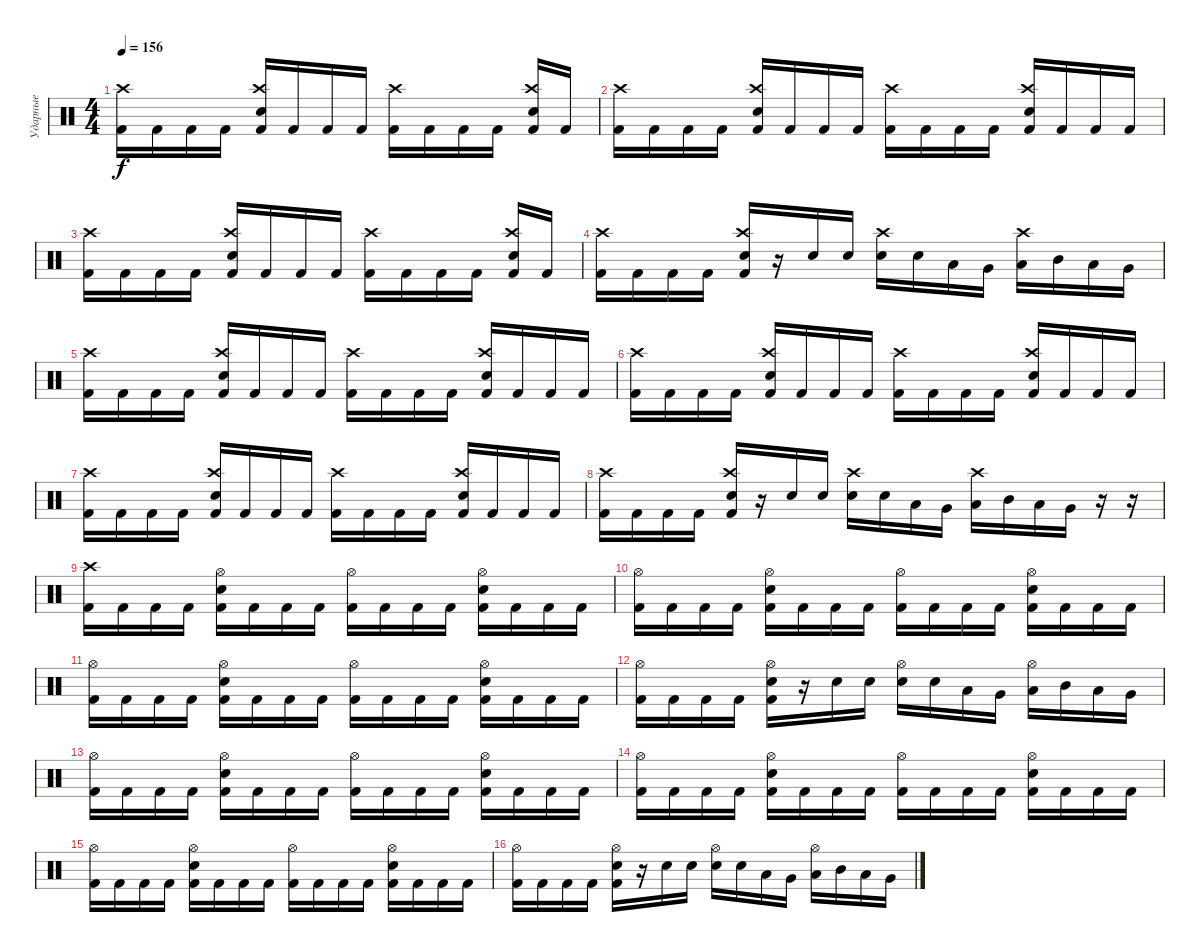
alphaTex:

\track ("Ударные" "Ударные") {instrument percussion}
\staff {score}
\articulation defaults
\ts (4 4)
\tempo 156
\clef neutral
\ks c
("Kick (hit) 2" "Crash high (hit)").16{dy f} "Kick (hit) 2".16 "Kick (hit) 2".16 "Kick (hit) 2".16 ("Kick (hit) 2" "Electric Snare (hit)" "Crash high (hit)").16 "Kick (hit) 2".16 "Kick (hit) 2".16 "Kick (hit) 2".16 ("Kick (hit) 2" "Crash high (hit)").16 "Kick (hit) 2".16 "Kick (hit) 2".16 "Kick (hit) 2".16 ("Kick (hit) 2" "Electric Snare (hit)" "Crash high (hit)").16 "Kick (hit) 2".16 |
("Kick (hit) 2" "Crash high (hit)").16 "Kick (hit) 2".16 "Kick (hit) 2".16 "Kick (hit) 2".16 ("Kick (hit) 2" "Electric Snare (hit)" "Crash high (hit)").16 "Kick (hit) 2".16 "Kick (hit) 2".16 "Kick (hit) 2".16 ("Kick (hit) 2" "Crash high (hit)").16 "Kick (hit) 2".16 "Kick (hit) 2".16 "Kick (hit) 2".16 ("Kick (hit) 2" "Electric Snare (hit)" "Crash high (hit)").16 "Kick (hit) 2".16 "Kick (hit) 2".16 "Kick (hit) 2".16 |
("Kick (hit) 2" "Crash high (hit)").16 "Kick (hit) 2".16 "Kick (hit) 2".16 "Kick (hit) 2".16 ("Kick (hit) 2" "Electric Snare (hit)" "Crash high (hit)").16 "Kick (hit) 2".16 "Kick (hit) 2".16 "Kick (hit) 2".16 ("Kick (hit) 2" "Crash high (hit)").16 "Kick (hit) 2".16 "Kick (hit) 2".16 "Kick (hit) 2".16 ("Kick (hit) 2" "Electric Snare (hit)" "Crash high (hit)").16 "Kick (hit) 2".16 |
("Kick (hit) 2" "Crash high (hit)").16 "Kick (hit) 2".16 "Kick (hit) 2".16 "Kick (hit) 2".16 ("Kick (hit) 2" "Electric Snare (hit)" "Crash high (hit)").16 r.16 "Snare (hit) 2".16 "Electric Snare (hit)".16 ("Snare (hit) 2" "Crash high (hit)").16 "Electric Snare (hit)".16 "Low Tom (hit)".16 "Very Low Tom (hit)".16 ("Low Tom (hit)" "Crash high (hit)").16 "Mid Tom (hit)".16 "Low Tom (hit)".16 "Very Low Tom (hit)".16 |
("Kick (hit) 2" "Crash high (hit)").16 "Kick (hit) 2".16 "Kick (hit) 2".16 "Kick (hit) 2".16 ("Kick (hit) 2" "Electric Snare (hit)" "Crash high (hit)").16 "Kick (hit) 2".16 "Kick (hit) 2".16 "Kick (hit) 2".16 ("Kick (hit) 2" "Crash high (hit)").16 "Kick (hit) 2".16 "Kick (hit) 2".16 "Kick (hit) 2".16 ("Kick (hit) 2" "Snare (hit) 2" "Crash high (hit)").16 "Kick (hit) 2".16 "Kick (hit) 2".16 "Kick (hit) 2".16 |
("Kick (hit) 2" "Crash high (hit)").16 "Kick (hit) 2".16 "Kick (hit) 2".16 "Kick (hit) 2".16 ("Kick (hit) 2" "Electric Snare (hit)" "Crash high (hit)").16 "Kick (hit) 2".16 "Kick (hit) 2".16 "Kick (hit) 2".16 ("Kick (hit) 2" "Crash high (hit)").16 "Kick (hit) 2".16 "Kick (hit) 2".16 "Kick (hit) 2".16 ("Kick (hit) 2" "Snare (hit) 2" "Crash high (hit)").16 "Kick (hit) 2".16 "Kick (hit) 2".16 "Kick (hit) 2".16 |
("Kick (hit) 2" "Crash high (hit)").16 "Kick (hit) 2".16 "Kick (hit) 2".16 "Kick (hit) 2".16 ("Kick (hit) 2" "Electric Snare (hit)" "Crash high (hit)").16 "Kick (hit) 2".16 "Kick (hit) 2".16 "Kick (hit) 2".16 ("Kick (hit) 2" "Crash high (hit)").16 "Kick (hit) 2".16 "Kick (hit) 2".16 "Kick (hit) 2".16 ("Kick (hit) 2" "Electric Snare (hit)" "Crash high (hit)").16 "Kick (hit) 2".16 "Kick (hit) 2".16 "Kick (hit) 2".16 |
("Kick (hit) 2" "Crash high (hit)").16 "Kick (hit) 2".16 "Kick (hit) 2".16 "Kick (hit) 2".16 ("Kick (hit) 2" "Electric Snare (hit)" "Crash high (hit)").16 r.16 "Snare (hit) 2".16 "Electric Snare (hit)".16 ("Snare (hit) 2" "Crash high (hit)").16 "Electric Snare (hit)".16 "Low Tom (hit)".16 "Very Low Tom (hit)".16 ("Low Tom (hit)" "Crash high (hit)").16 "Mid Tom (hit)".16 "Low Tom (hit)".16 "Very Low Tom (hit)".16 r.16 r.16 |
("Kick (hit) 2" "Crash high (hit)").16 "Kick (hit) 2".16 "Kick (hit) 2".16 "Kick (hit) 2".16 ("Kick (hit) 2" "Electric Snare (hit)" "Hi-Hat (open)").16 "Kick (hit) 2".16 "Kick (hit) 2".16 "Kick (hit) 2".16 ("Kick (hit) 2" "Hi-Hat (open)").16 "Kick (hit) 2".16 "Kick (hit) 2".16 "Kick (hit) 2".16 ("Kick (hit) 2" "Snare (hit) 2" "Hi-Hat (open)").16 "Kick (hit) 2".16 "Kick (hit) 2".16 "Kick (hit) 2".16 |
("Kick (hit) 2" "Hi-Hat (open)").16 "Kick (hit) 2".16 "Kick (hit) 2".16 "Kick (hit) 2".16 ("Kick (hit) 2" "Electric Snare (hit)" "Hi-Hat (open)").16 "Kick (hit) 2".16 "Kick (hit) 2".16 "Kick (hit) 2".16 ("Kick (hit) 2" "Hi-Hat (open)").16 "Kick (hit) 2".16 "Kick (hit) 2".16 "Kick (hit) 2".16 ("Kick (hit) 2" "Electric Snare (hit)" "Hi-Hat (open)").16 "Kick (hit) 2".16 "Kick (hit) 2".16 "Kick (hit) 2".16 |
("Kick (hit) 2" "Hi-Hat (open)").16 "Kick (hit) 2".16 "Kick (hit) 2".16 "Kick (hit) 2".16 ("Kick (hit) 2" "Electric Snare (hit)" "Hi-Hat (open)").16 "Kick (hit) 2".16 "Kick (hit) 2".16 "Kick (hit) 2".16 ("Kick (hit) 2" "Hi-Hat (open)").16 "Kick (hit) 2".16 "Kick (hit) 2".16 "Kick (hit) 2".16 ("Kick (hit) 2" "Electric Snare (hit)" "Hi-Hat (open)").16 "Kick (hit) 2".16 "Kick (hit) 2".16 "Kick (hit) 2".16 |
("Kick (hit) 2" "Hi-Hat (open)").16 "Kick (hit) 2".16 "Kick (hit) 2".16 "Kick (hit) 2".16 ("Kick (hit) 2" "Electric Snare (hit)" "Hi-Hat (open)").16 r.16 "Snare (hit) 2".16 "Electric Snare (hit)".16 ("Snare (hit) 2" "Hi-Hat (open)").16 "Electric Snare (hit)".16 "Low Tom (hit)".16 "Very Low Tom (hit)".16 ("Low Tom (hit)" "Hi-Hat (open)").16 "Mid Tom (hit)".16 "Low Tom (hit)".16 "Very Low Tom (hit)".16 |
("Kick (hit) 2" "Hi-Hat (open)").16 "Kick (hit) 2".16 "Kick (hit) 2".16 "Kick (hit) 2".16 ("Kick (hit) 2" "Electric Snare (hit)" "Hi-Hat (open)").16 "Kick (hit) 2".16 "Kick (hit) 2".16 "Kick (hit) 2".16 ("Kick (hit) 2" "Hi-Hat (open)").16 "Kick (hit) 2".16 "Kick (hit) 2".16 "Kick (hit) 2".16 ("Kick (hit) 2" "Snare (hit) 2" "Hi-Hat (open)").16 "Kick (hit) 2".16 "Kick (hit) 2".16 "Kick (hit) 2".16 |
("Kick (hit) 2" "Hi-Hat (open)").16 "Kick (hit) 2".16 "Kick (hit) 2".16 "Kick (hit) 2".16 ("Kick (hit) 2" "Electric Snare (hit)" "Hi-Hat (open)").16 "Kick (hit) 2".16 "Kick (hit) 2".16 "Kick (hit) 2".16 ("Kick (hit) 2" "Hi-Hat (open)").16 "Kick (hit) 2".16 "Kick (hit) 2".16 "Kick (hit) 2".16 ("Kick (hit) 2" "Electric Snare (hit)" "Hi-Hat (open)").16 "Kick (hit) 2".16 "Kick (hit) 2".16 "Kick (hit) 2".16 |
("Kick (hit) 2" "Hi-Hat (open)").16 "Kick (hit) 2".16 "Kick (hit) 2".16 "Kick (hit) 2".16 ("Kick (hit) 2" "Electric Snare (hit)" "Hi-Hat (open)").16 "Kick (hit) 2".16 "Kick (hit) 2".16 "Kick (hit) 2".16 ("Kick (hit) 2" "Hi-Hat (open)").16 "Kick (hit) 2".16 "Kick (hit) 2".16 "Kick (hit) 2".16 ("Kick (hit) 2" "Electric Snare (hit)" "Hi-Hat (open)").16 "Kick (hit) 2".16 "Kick (hit) 2".16 "Kick (hit) 2".16 |
("Kick (hit) 2" "Hi-Hat (open)").16 "Kick (hit) 2".16 "Kick (hit) 2".16 "Kick (hit) 2".16 ("Kick (hit) 2" "Electric Snare (hit)" "Hi-Hat (open)").16 r.16 "Snare (hit) 2".16 "Electric Snare (hit)".16 ("Snare (hit) 2" "Hi-Hat (open)").16 "Electric Snare (hit)".16 "Low Tom (hit)".16 "Very Low Tom (hit)".16 ("Low Tom (hit)" "Hi-Hat (open)").16 "Mid Tom (hit)".16 "Low Tom (hit)".16 "Very Low Tom (hit)".16
